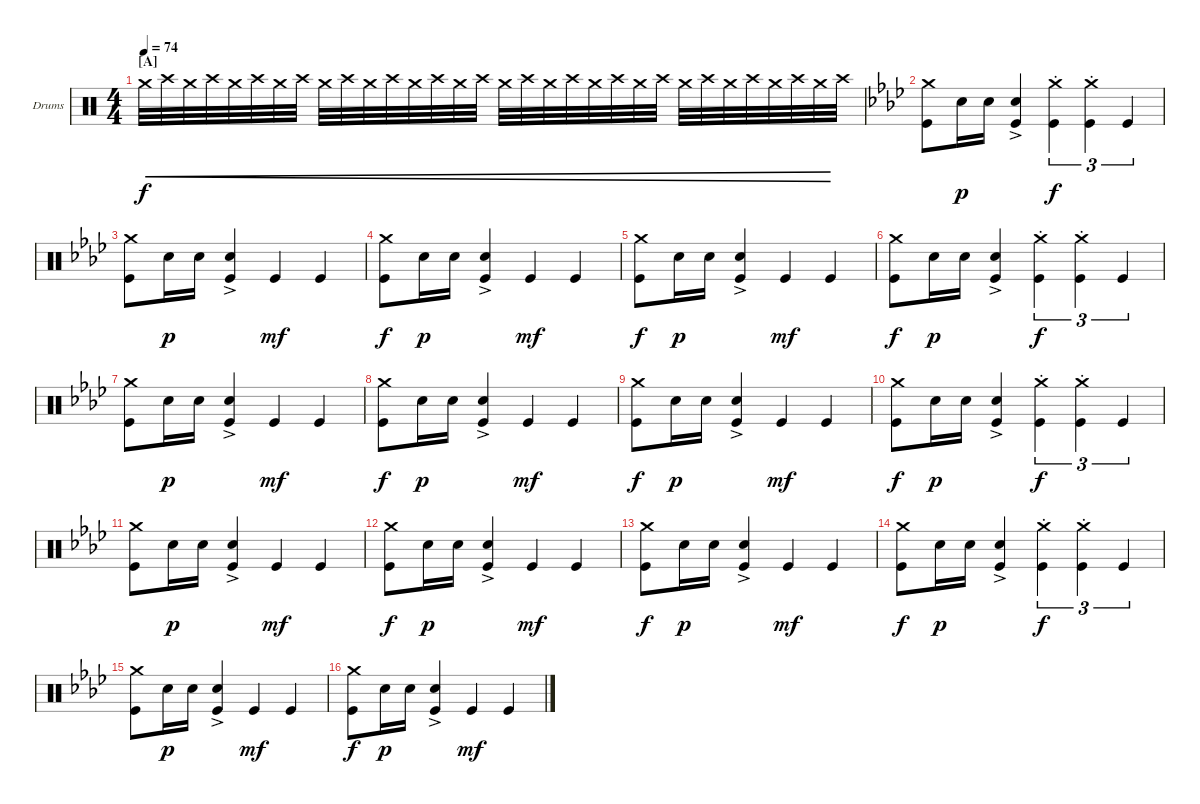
\defaultSystemsLayout 4
\bracketExtendMode groupsimilarinstruments
\firstSystemTrackNameOrientation horizontal
\otherSystemsTrackNameOrientation horizontal
\track ("Drumkit" "Drums") {instrument percussion}
\staff {score}
\articulation defaults
\ts (4 4)
\section ("A" "")
\tempo 74
\clef neutral
\ks c "Crash medium (hit)".32{cre dy f} "Crash high (hit)".32{cre} "Crash medium (hit)".32{cre} "Crash high (hit)".32{cre} "Crash medium (hit)".32{cre} "Crash high (hit)".32{cre} "Crash medium (hit)".32{cre} "Crash high (hit)".32{cre} "Crash medium (hit)".32{cre} "Crash high (hit)".32{cre} "Crash medium (hit)".32{cre} "Crash high (hit)".32{cre} "Crash medium (hit)".32{cre} "Crash high (hit)".32{cre} "Crash medium (hit)".32{cre} "Crash high (hit)".32{cre} "Crash medium (hit)".32{cre} "Crash high (hit)".32{cre} "Crash medium (hit)".32{cre} "Crash high (hit)".32{cre} "Crash medium (hit)".32{cre} "Crash high (hit)".32{cre} "Crash medium (hit)".32{cre} "Crash high (hit)".32{cre} "Crash medium (hit)".32{cre} "Crash high (hit)".32{cre} "Crash medium (hit)".32{cre} "Crash high (hit)".32{cre} "Crash medium (hit)".32{cre} "Crash high (hit)".32{cre} "Crash medium (hit)".32{cre} "Crash high (hit)".32
|
\ks ab
("Kick (hit)" "Crash medium (hit)").8 "Snare (hit) 2".16{dy p} "Snare (hit) 2".16 ("Kick (hit)"{ac} "Snare (hit) 2").4 ("Kick (hit)" "Crash medium (hit)"{st}).4{tu (3 2) dy f} ("Kick (hit)" "Crash medium (hit)"{st}).4{tu (3 2)} "Kick (hit)".4{tu (3 2)} |
("Kick (hit)" "Crash medium (hit)").8 "Snare (hit) 2".16{dy p} "Snare (hit) 2".16 ("Kick (hit)"{ac} "Snare (hit) 2").4 "Kick (hit)".4{dy mf} "Kick (hit)".4 |
("Kick (hit)" "Crash medium (hit)").8{dy f} "Snare (hit) 2".16{dy p} "Snare (hit) 2".16 ("Kick (hit)"{ac} "Snare (hit) 2").4 "Kick (hit)".4{dy mf} "Kick (hit)".4 |
("Kick (hit)" "Crash medium (hit)").8{dy f} "Snare (hit) 2".16{dy p} "Snare (hit) 2".16 ("Kick (hit)"{ac} "Snare (hit) 2").4 "Kick (hit)".4{dy mf} "Kick (hit)".4 |
("Kick (hit)" "Crash medium (hit)").8{dy f} "Snare (hit) 2".16{dy p} "Snare (hit) 2".16 ("Kick (hit)"{ac} "Snare (hit) 2").4 ("Kick (hit)" "Crash medium (hit)"{st}).4{tu (3 2) dy f} ("Kick (hit)" "Crash medium (hit)"{st}).4{tu (3 2)} "Kick (hit)".4{tu (3 2)} |
("Kick (hit)" "Crash medium (hit)").8 "Snare (hit) 2".16{dy p} "Snare (hit) 2".16 ("Kick (hit)"{ac} "Snare (hit) 2").4 "Kick (hit)".4{dy mf} "Kick (hit)".4 |
("Kick (hit)" "Crash medium (hit)").8{dy f} "Snare (hit) 2".16{dy p} "Snare (hit) 2".16 ("Kick (hit)"{ac} "Snare (hit) 2").4 "Kick (hit)".4{dy mf} "Kick (hit)".4 |
("Kick (hit)" "Crash medium (hit)").8{dy f} "Snare (hit) 2".16{dy p} "Snare (hit) 2".16 ("Kick (hit)"{ac} "Snare (hit) 2").4 "Kick (hit)".4{dy mf} "Kick (hit)".4 |
("Kick (hit)" "Crash medium (hit)").8{dy f} "Snare (hit) 2".16{dy p} "Snare (hit) 2".16 ("Kick (hit)"{ac} "Snare (hit) 2").4 ("Kick (hit)" "Crash medium (hit)"{st}).4{tu (3 2) dy f} ("Kick (hit)" "Crash medium (hit)"{st}).4{tu (3 2)} "Kick (hit)".4{tu (3 2)} |
("Kick (hit)" "Crash medium (hit)").8 "Snare (hit) 2".16{dy p} "Snare (hit) 2".16 ("Kick (hit)"{ac} "Snare (hit) 2").4 "Kick (hit)".4{dy mf} "Kick (hit)".4 |
("Kick (hit)" "Crash medium (hit)").8{dy f} "Snare (hit) 2".16{dy p} "Snare (hit) 2".16 ("Kick (hit)"{ac} "Snare (hit) 2").4 "Kick (hit)".4{dy mf} "Kick (hit)".4 |
("Kick (hit)" "Crash medium (hit)").8{dy f} "Snare (hit) 2".16{dy p} "Snare (hit) 2".16 ("Kick (hit)"{ac} "Snare (hit) 2").4 "Kick (hit)".4{dy mf} "Kick (hit)".4 |
("Kick (hit)" "Crash medium (hit)").8{dy f} "Snare (hit) 2".16{dy p} "Snare (hit) 2".16 ("Kick (hit)"{ac} "Snare (hit) 2").4 ("Kick (hit)" "Crash medium (hit)"{st}).4{tu (3 2) dy f} ("Kick (hit)" "Crash medium (hit)"{st}).4{tu (3 2)} "Kick (hit)".4{tu (3 2)} |
("Kick (hit)" "Crash medium (hit)").8 "Snare (hit) 2".16{dy p} "Snare (hit) 2".16 ("Kick (hit)"{ac} "Snare (hit) 2").4 "Kick (hit)".4{dy mf} "Kick (hit)".4 |
("Kick (hit)" "Crash medium (hit)").8{dy f} "Snare (hit) 2".16{dy p} "Snare (hit) 2".16 ("Kick (hit)"{ac} "Snare (hit) 2").4 "Kick (hit)".4{dy mf} "Kick (hit)".4
